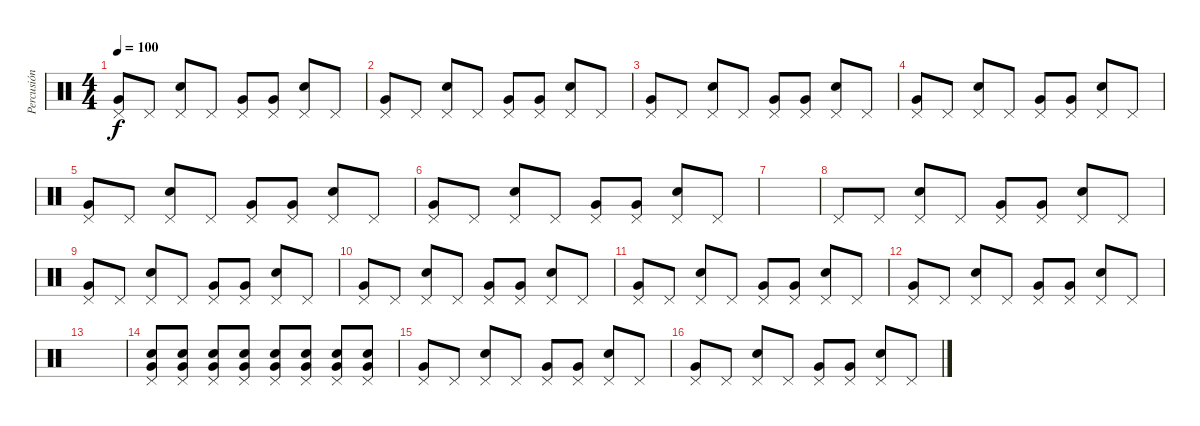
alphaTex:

\track ("Percusión" "Percusión") {instrument percussion}
\staff {score}
\articulation defaults
\ts (4 4)
\tempo 100
\clef neutral
\ks c
("Pedal Hi-Hat (hit)" "Very Low Tom (hit)").8{dy f} "Pedal Hi-Hat (hit)".8 ("Pedal Hi-Hat (hit)" "Snare (hit) 2").8 "Pedal Hi-Hat (hit)".8 ("Pedal Hi-Hat (hit)" "Very Low Tom (hit)").8 ("Pedal Hi-Hat (hit)" "Very Low Tom (hit)").8 ("Pedal Hi-Hat (hit)" "Snare (hit) 2").8 "Pedal Hi-Hat (hit)".8 |
("Pedal Hi-Hat (hit)" "Very Low Tom (hit)").8 "Pedal Hi-Hat (hit)".8 ("Pedal Hi-Hat (hit)" "Snare (hit) 2").8 "Pedal Hi-Hat (hit)".8 ("Pedal Hi-Hat (hit)" "Very Low Tom (hit)").8 ("Pedal Hi-Hat (hit)" "Very Low Tom (hit)").8 ("Pedal Hi-Hat (hit)" "Snare (hit) 2").8 "Pedal Hi-Hat (hit)".8 |
("Pedal Hi-Hat (hit)" "Very Low Tom (hit)").8 "Pedal Hi-Hat (hit)".8 ("Pedal Hi-Hat (hit)" "Snare (hit) 2").8 "Pedal Hi-Hat (hit)".8 ("Pedal Hi-Hat (hit)" "Very Low Tom (hit)").8 ("Pedal Hi-Hat (hit)" "Very Low Tom (hit)").8 ("Pedal Hi-Hat (hit)" "Snare (hit) 2").8 "Pedal Hi-Hat (hit)".8 |
("Pedal Hi-Hat (hit)" "Very Low Tom (hit)").8 "Pedal Hi-Hat (hit)".8 ("Pedal Hi-Hat (hit)" "Snare (hit) 2").8 "Pedal Hi-Hat (hit)".8 ("Pedal Hi-Hat (hit)" "Very Low Tom (hit)").8 ("Pedal Hi-Hat (hit)" "Very Low Tom (hit)").8 ("Pedal Hi-Hat (hit)" "Snare (hit) 2").8 "Pedal Hi-Hat (hit)".8 |
("Pedal Hi-Hat (hit)" "Very Low Tom (hit)").8 "Pedal Hi-Hat (hit)".8 ("Pedal Hi-Hat (hit)" "Snare (hit) 2").8 "Pedal Hi-Hat (hit)".8 ("Pedal Hi-Hat (hit)" "Very Low Tom (hit)").8 ("Pedal Hi-Hat (hit)" "Very Low Tom (hit)").8 ("Pedal Hi-Hat (hit)" "Snare (hit) 2").8 "Pedal Hi-Hat (hit)".8 |
("Pedal Hi-Hat (hit)" "Very Low Tom (hit)").8 "Pedal Hi-Hat (hit)".8 ("Pedal Hi-Hat (hit)" "Snare (hit) 2").8 "Pedal Hi-Hat (hit)".8 ("Pedal Hi-Hat (hit)" "Very Low Tom (hit)").8 ("Pedal Hi-Hat (hit)" "Very Low Tom (hit)").8 ("Pedal Hi-Hat (hit)" "Snare (hit) 2").8 "Pedal Hi-Hat (hit)".8 |
|
"Pedal Hi-Hat (hit)".8 "Pedal Hi-Hat (hit)".8 ("Pedal Hi-Hat (hit)" "Snare (hit) 2").8 "Pedal Hi-Hat (hit)".8 ("Pedal Hi-Hat (hit)" "Very Low Tom (hit)").8 ("Pedal Hi-Hat (hit)" "Very Low Tom (hit)").8 ("Pedal Hi-Hat (hit)" "Snare (hit) 2").8 "Pedal Hi-Hat (hit)".8 |
("Pedal Hi-Hat (hit)" "Very Low Tom (hit)").8 "Pedal Hi-Hat (hit)".8 ("Pedal Hi-Hat (hit)" "Snare (hit) 2").8 "Pedal Hi-Hat (hit)".8 ("Pedal Hi-Hat (hit)" "Very Low Tom (hit)").8 ("Pedal Hi-Hat (hit)" "Very Low Tom (hit)").8 ("Pedal Hi-Hat (hit)" "Snare (hit) 2").8 "Pedal Hi-Hat (hit)".8 |
("Pedal Hi-Hat (hit)" "Very Low Tom (hit)").8 "Pedal Hi-Hat (hit)".8 ("Pedal Hi-Hat (hit)" "Snare (hit) 2").8 "Pedal Hi-Hat (hit)".8 ("Pedal Hi-Hat (hit)" "Very Low Tom (hit)").8 ("Pedal Hi-Hat (hit)" "Very Low Tom (hit)").8 ("Pedal Hi-Hat (hit)" "Snare (hit) 2").8 "Pedal Hi-Hat (hit)".8 |
("Pedal Hi-Hat (hit)" "Very Low Tom (hit)").8 "Pedal Hi-Hat (hit)".8 ("Pedal Hi-Hat (hit)" "Snare (hit) 2").8 "Pedal Hi-Hat (hit)".8 ("Pedal Hi-Hat (hit)" "Very Low Tom (hit)").8 ("Pedal Hi-Hat (hit)" "Very Low Tom (hit)").8 ("Pedal Hi-Hat (hit)" "Snare (hit) 2").8 "Pedal Hi-Hat (hit)".8 |
("Pedal Hi-Hat (hit)" "Very Low Tom (hit)").8 "Pedal Hi-Hat (hit)".8 ("Pedal Hi-Hat (hit)" "Snare (hit) 2").8 "Pedal Hi-Hat (hit)".8 ("Pedal Hi-Hat (hit)" "Very Low Tom (hit)").8 ("Pedal Hi-Hat (hit)" "Very Low Tom (hit)").8 ("Pedal Hi-Hat (hit)" "Snare (hit) 2").8 "Pedal Hi-Hat (hit)".8 |
|
("Pedal Hi-Hat (hit)" "Snare (hit) 2" "Very Low Tom (hit)").8 ("Pedal Hi-Hat (hit)" "Snare (hit) 2" "Very Low Tom (hit)").8 ("Pedal Hi-Hat (hit)" "Snare (hit) 2" "Very Low Tom (hit)").8 ("Pedal Hi-Hat (hit)" "Snare (hit) 2" "Very Low Tom (hit)").8 ("Pedal Hi-Hat (hit)" "Snare (hit) 2" "Very Low Tom (hit)").8 ("Pedal Hi-Hat (hit)" "Snare (hit) 2" "Very Low Tom (hit)").8 ("Pedal Hi-Hat (hit)" "Snare (hit) 2" "Very Low Tom (hit)").8 ("Pedal Hi-Hat (hit)" "Snare (hit) 2" "Very Low Tom (hit)").8 |
("Pedal Hi-Hat (hit)" "Very Low Tom (hit)").8 "Pedal Hi-Hat (hit)".8 ("Pedal Hi-Hat (hit)" "Snare (hit) 2").8 "Pedal Hi-Hat (hit)".8 ("Pedal Hi-Hat (hit)" "Very Low Tom (hit)").8 ("Pedal Hi-Hat (hit)" "Very Low Tom (hit)").8 ("Pedal Hi-Hat (hit)" "Snare (hit) 2").8 "Pedal Hi-Hat (hit)".8 |
("Pedal Hi-Hat (hit)" "Very Low Tom (hit)").8 "Pedal Hi-Hat (hit)".8 ("Pedal Hi-Hat (hit)" "Snare (hit) 2").8 "Pedal Hi-Hat (hit)".8 ("Pedal Hi-Hat (hit)" "Very Low Tom (hit)").8 ("Pedal Hi-Hat (hit)" "Very Low Tom (hit)").8 ("Pedal Hi-Hat (hit)" "Snare (hit) 2").8 "Pedal Hi-Hat (hit)".8
